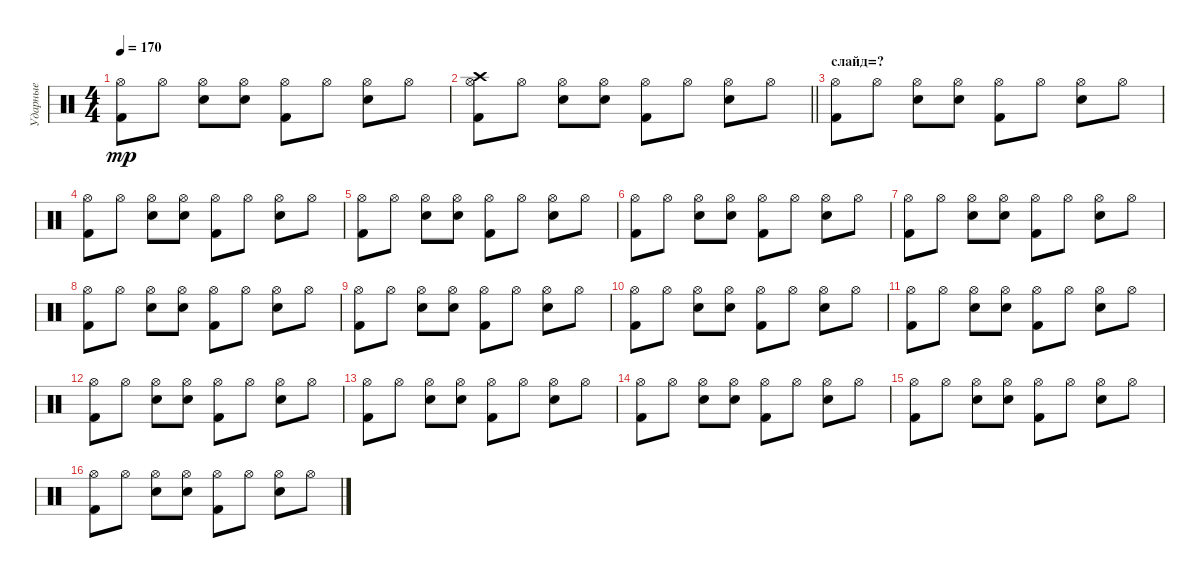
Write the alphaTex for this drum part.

\track ("Ударные" "Ударные") {instrument percussion}
\staff {score}
\articulation defaults
\ts (4 4)
\tempo 170
\clef neutral
\ks c
("Hi-Hat (open)" "Kick (hit) 2").8{dy mp} "Hi-Hat (open)".8 ("Hi-Hat (open)" "Electric Snare (hit)").8 ("Hi-Hat (open)" "Electric Snare (hit)").8 ("Hi-Hat (open)" "Kick (hit) 2").8 "Hi-Hat (open)".8 ("Hi-Hat (open)" "Electric Snare (hit)").8 "Hi-Hat (open)".8 |
\barLineRight lightlight
("Crash high (hit)" "Hi-Hat (open)" "Kick (hit) 2").8 "Hi-Hat (open)".8 ("Hi-Hat (open)" "Electric Snare (hit)").8 ("Hi-Hat (open)" "Electric Snare (hit)").8 ("Hi-Hat (open)" "Kick (hit) 2").8 "Hi-Hat (open)".8 ("Hi-Hat (open)" "Electric Snare (hit)").8 "Hi-Hat (open)".8 |
\section ("" "слайд=?")
("Hi-Hat (open)" "Kick (hit) 2").8 "Hi-Hat (open)".8 ("Hi-Hat (open)" "Electric Snare (hit)").8 ("Hi-Hat (open)" "Electric Snare (hit)").8 ("Hi-Hat (open)" "Kick (hit) 2").8 "Hi-Hat (open)".8 ("Hi-Hat (open)" "Electric Snare (hit)").8 "Hi-Hat (open)".8 |
("Hi-Hat (open)" "Kick (hit) 2").8 "Hi-Hat (open)".8 ("Hi-Hat (open)" "Electric Snare (hit)").8 ("Hi-Hat (open)" "Electric Snare (hit)").8 ("Hi-Hat (open)" "Kick (hit) 2").8 "Hi-Hat (open)".8 ("Hi-Hat (open)" "Electric Snare (hit)").8 "Hi-Hat (open)".8 |
("Hi-Hat (open)" "Kick (hit) 2").8 "Hi-Hat (open)".8 ("Hi-Hat (open)" "Electric Snare (hit)").8 ("Hi-Hat (open)" "Electric Snare (hit)").8 ("Hi-Hat (open)" "Kick (hit) 2").8 "Hi-Hat (open)".8 ("Hi-Hat (open)" "Electric Snare (hit)").8 "Hi-Hat (open)".8 |
("Hi-Hat (open)" "Kick (hit) 2").8 "Hi-Hat (open)".8 ("Hi-Hat (open)" "Electric Snare (hit)").8 ("Hi-Hat (open)" "Electric Snare (hit)").8 ("Hi-Hat (open)" "Kick (hit) 2").8 "Hi-Hat (open)".8 ("Hi-Hat (open)" "Electric Snare (hit)").8 "Hi-Hat (open)".8 |
("Hi-Hat (open)" "Kick (hit) 2").8 "Hi-Hat (open)".8 ("Hi-Hat (open)" "Electric Snare (hit)").8 ("Hi-Hat (open)" "Electric Snare (hit)").8 ("Hi-Hat (open)" "Kick (hit) 2").8 "Hi-Hat (open)".8 ("Hi-Hat (open)" "Electric Snare (hit)").8 "Hi-Hat (open)".8 |
("Hi-Hat (open)" "Kick (hit) 2").8 "Hi-Hat (open)".8 ("Hi-Hat (open)" "Electric Snare (hit)").8 ("Hi-Hat (open)" "Electric Snare (hit)").8 ("Hi-Hat (open)" "Kick (hit) 2").8 "Hi-Hat (open)".8 ("Hi-Hat (open)" "Electric Snare (hit)").8 "Hi-Hat (open)".8 |
("Hi-Hat (open)" "Kick (hit) 2").8 "Hi-Hat (open)".8 ("Hi-Hat (open)" "Electric Snare (hit)").8 ("Hi-Hat (open)" "Electric Snare (hit)").8 ("Hi-Hat (open)" "Kick (hit) 2").8 "Hi-Hat (open)".8 ("Hi-Hat (open)" "Electric Snare (hit)").8 "Hi-Hat (open)".8 |
("Hi-Hat (open)" "Kick (hit) 2").8 "Hi-Hat (open)".8 ("Hi-Hat (open)" "Electric Snare (hit)").8 ("Hi-Hat (open)" "Electric Snare (hit)").8 ("Hi-Hat (open)" "Kick (hit) 2").8 "Hi-Hat (open)".8 ("Hi-Hat (open)" "Electric Snare (hit)").8 "Hi-Hat (open)".8 |
("Hi-Hat (open)" "Kick (hit) 2").8 "Hi-Hat (open)".8 ("Hi-Hat (open)" "Electric Snare (hit)").8 ("Hi-Hat (open)" "Electric Snare (hit)").8 ("Hi-Hat (open)" "Kick (hit) 2").8 "Hi-Hat (open)".8 ("Hi-Hat (open)" "Electric Snare (hit)").8 "Hi-Hat (open)".8 |
("Hi-Hat (open)" "Kick (hit) 2").8 "Hi-Hat (open)".8 ("Hi-Hat (open)" "Electric Snare (hit)").8 ("Hi-Hat (open)" "Electric Snare (hit)").8 ("Hi-Hat (open)" "Kick (hit) 2").8 "Hi-Hat (open)".8 ("Hi-Hat (open)" "Electric Snare (hit)").8 "Hi-Hat (open)".8 |
("Hi-Hat (open)" "Kick (hit) 2").8 "Hi-Hat (open)".8 ("Hi-Hat (open)" "Electric Snare (hit)").8 ("Hi-Hat (open)" "Electric Snare (hit)").8 ("Hi-Hat (open)" "Kick (hit) 2").8 "Hi-Hat (open)".8 ("Hi-Hat (open)" "Electric Snare (hit)").8 "Hi-Hat (open)".8 |
("Hi-Hat (open)" "Kick (hit) 2").8 "Hi-Hat (open)".8 ("Hi-Hat (open)" "Electric Snare (hit)").8 ("Hi-Hat (open)" "Electric Snare (hit)").8 ("Hi-Hat (open)" "Kick (hit) 2").8 "Hi-Hat (open)".8 ("Hi-Hat (open)" "Electric Snare (hit)").8 "Hi-Hat (open)".8 |
("Hi-Hat (open)" "Kick (hit) 2").8 "Hi-Hat (open)".8 ("Hi-Hat (open)" "Electric Snare (hit)").8 ("Hi-Hat (open)" "Electric Snare (hit)").8 ("Hi-Hat (open)" "Kick (hit) 2").8 "Hi-Hat (open)".8 ("Hi-Hat (open)" "Electric Snare (hit)").8 "Hi-Hat (open)".8 |
("Hi-Hat (open)" "Kick (hit) 2").8 "Hi-Hat (open)".8 ("Hi-Hat (open)" "Electric Snare (hit)").8 ("Hi-Hat (open)" "Electric Snare (hit)").8 ("Hi-Hat (open)" "Kick (hit) 2").8 "Hi-Hat (open)".8 ("Hi-Hat (open)" "Electric Snare (hit)").8 "Hi-Hat (open)".8
